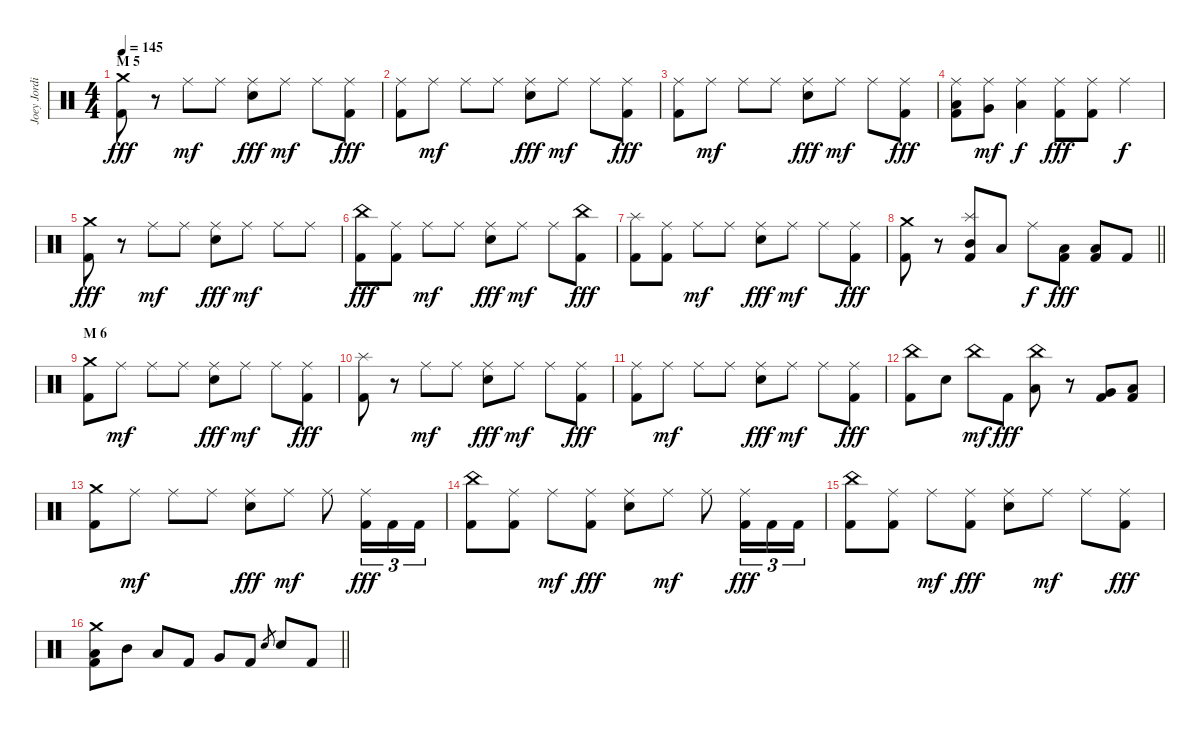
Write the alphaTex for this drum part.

\track ("Joey Jordison" "Joey Jordi") {instrument percussion}
\staff {score}
\articulation defaults
\ts (4 4)
\section ("" "M 5")
\tempo 145
\clef neutral
\ks c
("Crash medium (hit)" "Kick (hit) 2").8{dy fff} r.8 "Ride (middle)".8{dy mf} "Ride (middle)".8 ("Ride (middle)" "Electric Snare (hit)").8{dy fff} "Ride (middle)".8{dy mf} "Ride (middle)".8 ("Ride (middle)" "Kick (hit) 2").8{dy fff} |
("Ride (middle)" "Kick (hit) 2").8 "Ride (middle)".8{dy mf} "Ride (middle)".8 "Ride (middle)".8 ("Ride (middle)" "Electric Snare (hit)").8{dy fff} "Ride (middle)".8{dy mf} "Ride (middle)".8 ("Ride (middle)" "Kick (hit) 2").8{dy fff} |
("Ride (middle)" "Kick (hit) 2").8 "Ride (middle)".8{dy mf} "Ride (middle)".8 "Ride (middle)".8 ("Ride (middle)" "Electric Snare (hit)").8{dy fff} "Ride (middle)".8{dy mf} "Ride (middle)".8 ("Ride (middle)" "Kick (hit) 2").8{dy fff} |
("Ride (middle)" "Low Floor Tom (hit)" "Kick (hit) 2").8 ("Ride (middle)" "Very Low Tom (hit)").8{dy mf} ("Ride (middle)" "Low Tom (hit)").4{dy f} ("Ride (middle)" "Kick (hit) 2").8{dy fff} ("Ride (middle)" "Kick (hit) 2").8 "Ride (middle)".4{dy f} |
("Crash medium (hit)" "Kick (hit) 2").8{dy fff} r.8 "Ride (middle)".8{dy mf} "Ride (middle)".8 ("Ride (middle)" "Electric Snare (hit)").8{dy fff} "Ride (middle)".8{dy mf} "Ride (middle)".8 "Ride (middle)".8 |
("China (hit)" "Kick (hit) 2").8{dy fff} ("Ride (middle)" "Kick (hit) 2").8 "Ride (middle)".8{dy mf} "Ride (middle)".8 ("Ride (middle)" "Electric Snare (hit)").8{dy fff} "Ride (middle)".8{dy mf} "Ride (middle)".8 ("China (hit)" "Kick (hit) 2").8{dy fff} |
("Splash (hit)" "Kick (hit) 2").8 ("Ride (middle)" "Kick (hit) 2").8 "Ride (middle)".8{dy mf} "Ride (middle)".8 ("Ride (middle)" "Electric Snare (hit)").8{dy fff} "Ride (middle)".8{dy mf} "Ride (middle)".8 ("Ride (middle)" "Kick (hit) 2").8{dy fff} |
\barLineRight lightlight
("Crash medium (hit)" "Kick (hit) 2").8 r.8 ("Splash (hit)" "Mid Tom (hit)" "Kick (hit) 2").8 "Low Tom (hit)".8 "Ride (middle)".8{dy f} ("Low Floor Tom (hit)" "Kick (hit) 2").8{dy fff} ("Low Floor Tom (hit)" "Kick (hit) 2").8 "Kick (hit) 2".8 |
\section ("" "M 6")
("Crash medium (hit)" "Kick (hit) 2").8 "Ride (middle)".8{dy mf} "Ride (middle)".8 "Ride (middle)".8 ("Ride (middle)" "Electric Snare (hit)").8{dy fff} "Ride (middle)".8{dy mf} "Ride (middle)".8 ("Ride (middle)" "Kick (hit) 2").8{dy fff} |
("Splash (hit)" "Kick (hit) 2").8 r.8 "Ride (middle)".8{dy mf} "Ride (middle)".8 ("Ride (middle)" "Electric Snare (hit)").8{dy fff} "Ride (middle)".8{dy mf} "Ride (middle)".8 ("Ride (middle)" "Kick (hit) 2").8{dy fff} |
("Ride (middle)" "Kick (hit) 2").8 "Ride (middle)".8{dy mf} "Ride (middle)".8 "Ride (middle)".8 ("Ride (middle)" "Electric Snare (hit)").8{dy fff} "Ride (middle)".8{dy mf} "Ride (middle)".8 ("Ride (middle)" "Kick (hit) 2").8{dy fff} |
("China (hit)" "Kick (hit) 2").8 "Electric Snare (hit)".8 "China (hit)".8{dy mf} "Kick (hit) 2".8{dy fff} ("China (hit)" "Low Tom (hit)").8 r.8 ("Very Low Tom (hit)" "Kick (hit) 2").8 ("Low Floor Tom (hit)" "Kick (hit) 2").8 |
("Crash medium (hit)" "Kick (hit) 2").8 "Ride (middle)".8{dy mf} "Ride (middle)".8 "Ride (middle)".8 ("Ride (middle)" "Electric Snare (hit)").8{dy fff} "Ride (middle)".8{dy mf} "Ride (middle)".8 ("Ride (middle)" "Kick (hit) 2").16{tu (3 2) dy fff} "Kick (hit) 2".16{tu (3 2)} "Kick (hit) 2".16{tu (3 2)} |
("China (hit)" "Kick (hit) 2").8 ("Ride (middle)" "Kick (hit) 2").8 "Ride (middle)".8{dy mf} ("Ride (middle)" "Kick (hit) 2").8{dy fff} ("Ride (middle)" "Electric Snare (hit)").8 "Ride (middle)".8{dy mf} "Ride (middle)".8 ("Ride (middle)" "Kick (hit) 2").16{tu (3 2) dy fff} "Kick (hit) 2".16{tu (3 2)} "Kick (hit) 2".16{tu (3 2)} |
("China (hit)" "Kick (hit) 2").8 ("Ride (middle)" "Kick (hit) 2").8 "Ride (middle)".8{dy mf} ("Ride (middle)" "Kick (hit) 2").8{dy fff} ("Ride (middle)" "Electric Snare (hit)").8 "Ride (middle)".8{dy mf} "Ride (middle)".8 ("Ride (middle)" "Kick (hit) 2").8{dy fff} |
\barLineRight lightlight
("Crash medium (hit)" "Low Tom (hit)" "Kick (hit) 2").8 "Mid Tom (hit)".8 "Low Tom (hit)".8 "Kick (hit) 2".8 "Very Low Tom (hit)".8 "Kick (hit) 2".8 "Electric Snare (hit)".8{gr} "Electric Snare (hit)".8 "Kick (hit) 2".8
